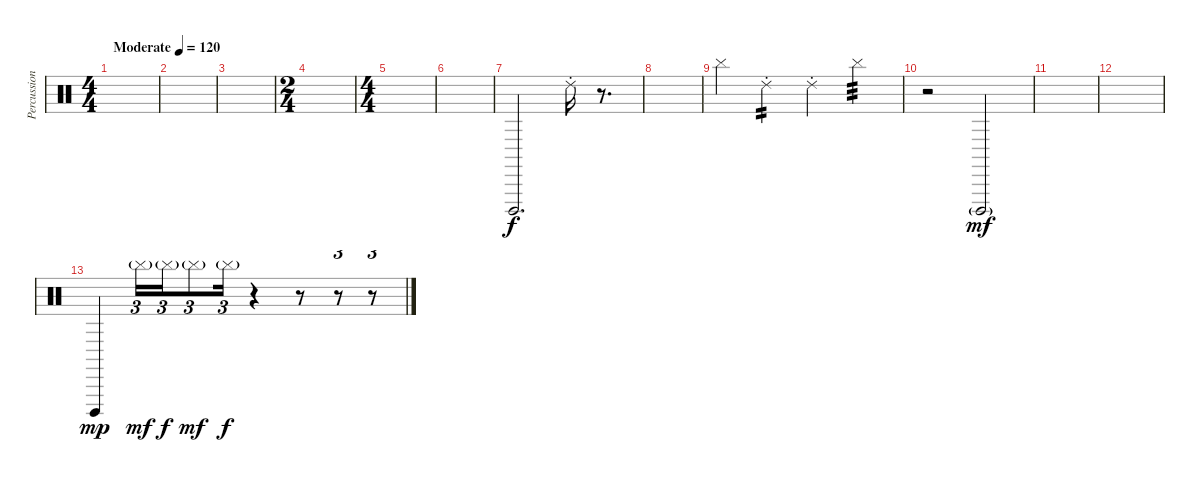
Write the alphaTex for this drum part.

\track ("Percussioni" "Percussion") {instrument percussion}
\staff {score}
\articulation defaults
\ts (4 4)
\tempo (120 "Moderate")
\clef neutral
\ks c
|
|
|
\ts (2 4)
|
\ts (4 4)
|
|
"Cuica (open)".2{d} "Ride (choke) 2".16 r.8{d} |
|
"Cymbal (hit)".4 "Ride (choke) 2".4{tp 2} "Ride (choke) 2".4 "Cymbal (hit)".4{tp 3} |
r.2 "Cuica (open)"{g}.2{dy mf} |
|
|
"Cuica (open)".4{dy mp} "Cymbal (hit)"{g}.16{tu (3 2) dy mf} "Cymbal (hit)"{g}.16{tu (3 2) dy f} "Cymbal (hit)"{g}.8{tu (3 2) dy mf} "Cymbal (hit)"{g}.16{tu (3 2) dy f} r.4 r.8 r.8{tu (3 2)} r.8{tu (3 2)}
